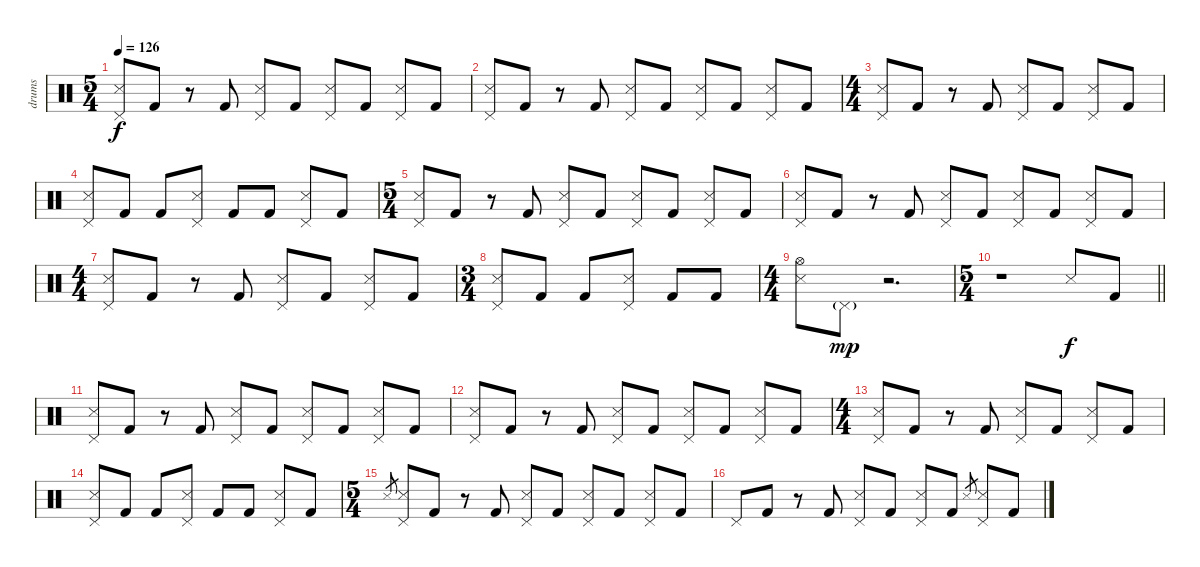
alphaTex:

\track ("drums" "drums") {instrument percussion}
\staff {score}
\articulation defaults
\ts (5 4)
\tempo 126
\clef neutral
\ks c
("Pedal Hi-Hat (hit)" "Snare (side stick) 3").8{dy f} "Kick (hit) 2".8 r.8 "Kick (hit) 2".8 ("Pedal Hi-Hat (hit)" "Snare (side stick) 3").8 "Kick (hit) 2".8 ("Pedal Hi-Hat (hit)" "Snare (side stick) 3").8 "Kick (hit) 2".8 ("Pedal Hi-Hat (hit)" "Snare (side stick) 3").8 "Kick (hit) 2".8 |
("Pedal Hi-Hat (hit)" "Snare (side stick) 3").8 "Kick (hit) 2".8 r.8 "Kick (hit) 2".8 ("Pedal Hi-Hat (hit)" "Snare (side stick) 3").8 "Kick (hit) 2".8 ("Pedal Hi-Hat (hit)" "Snare (side stick) 3").8 "Kick (hit) 2".8 ("Pedal Hi-Hat (hit)" "Snare (side stick) 3").8 "Kick (hit) 2".8 |
\ts (4 4)
("Pedal Hi-Hat (hit)" "Snare (side stick) 3").8 "Kick (hit) 2".8 r.8 "Kick (hit) 2".8 ("Pedal Hi-Hat (hit)" "Snare (side stick) 3").8 "Kick (hit) 2".8 ("Pedal Hi-Hat (hit)" "Snare (side stick) 3").8 "Kick (hit) 2".8 |
("Pedal Hi-Hat (hit)" "Snare (side stick) 3").8 "Kick (hit) 2".8 "Kick (hit) 2".8 ("Pedal Hi-Hat (hit)" "Snare (side stick) 3").8 "Kick (hit) 2".8 "Kick (hit) 2".8 ("Pedal Hi-Hat (hit)" "Snare (side stick) 3").8 "Kick (hit) 2".8 |
\ts (5 4)
("Pedal Hi-Hat (hit)" "Snare (side stick) 3").8 "Kick (hit) 2".8 r.8 "Kick (hit) 2".8 ("Pedal Hi-Hat (hit)" "Snare (side stick) 3").8 "Kick (hit) 2".8 ("Pedal Hi-Hat (hit)" "Snare (side stick) 3").8 "Kick (hit) 2".8 ("Pedal Hi-Hat (hit)" "Snare (side stick) 3").8 "Kick (hit) 2".8 |
("Pedal Hi-Hat (hit)" "Snare (side stick) 3").8 "Kick (hit) 2".8 r.8 "Kick (hit) 2".8 ("Pedal Hi-Hat (hit)" "Snare (side stick) 3").8 "Kick (hit) 2".8 ("Pedal Hi-Hat (hit)" "Snare (side stick) 3").8 "Kick (hit) 2".8 ("Pedal Hi-Hat (hit)" "Snare (side stick) 3").8 "Kick (hit) 2".8 |
\ts (4 4)
("Pedal Hi-Hat (hit)" "Snare (side stick) 3").8 "Kick (hit) 2".8 r.8 "Kick (hit) 2".8 ("Pedal Hi-Hat (hit)" "Snare (side stick) 3").8 "Kick (hit) 2".8 ("Pedal Hi-Hat (hit)" "Snare (side stick) 3").8 "Kick (hit) 2".8 |
\ts (3 4)
("Pedal Hi-Hat (hit)" "Snare (side stick) 3").8 "Kick (hit) 2".8 "Kick (hit) 2".8 ("Pedal Hi-Hat (hit)" "Snare (side stick) 3").8 "Kick (hit) 2".8 "Kick (hit) 2".8 |
\ts (4 4)
("Hi-Hat (open)" "Snare (side stick) 3").8 "Pedal Hi-Hat (hit)"{g}.8{dy mp} r.2{d} |
\ts (5 4)
\barLineRight lightlight
r.1 "Snare (side stick) 3".8{dy f} "Kick (hit) 2".8 |
("Pedal Hi-Hat (hit)" "Snare (side stick) 3").8 "Kick (hit) 2".8 r.8 "Kick (hit) 2".8 ("Pedal Hi-Hat (hit)" "Snare (side stick) 3").8 "Kick (hit) 2".8 ("Pedal Hi-Hat (hit)" "Snare (side stick) 3").8 "Kick (hit) 2".8 ("Pedal Hi-Hat (hit)" "Snare (side stick) 3").8 "Kick (hit) 2".8 |
("Pedal Hi-Hat (hit)" "Snare (side stick) 3").8 "Kick (hit) 2".8 r.8 "Kick (hit) 2".8 ("Pedal Hi-Hat (hit)" "Snare (side stick) 3").8 "Kick (hit) 2".8 ("Pedal Hi-Hat (hit)" "Snare (side stick) 3").8 "Kick (hit) 2".8 ("Pedal Hi-Hat (hit)" "Snare (side stick) 3").8 "Kick (hit) 2".8 |
\ts (4 4)
("Pedal Hi-Hat (hit)" "Snare (side stick) 3").8 "Kick (hit) 2".8 r.8 "Kick (hit) 2".8 ("Pedal Hi-Hat (hit)" "Snare (side stick) 3").8 "Kick (hit) 2".8 ("Pedal Hi-Hat (hit)" "Snare (side stick) 3").8 "Kick (hit) 2".8 |
("Pedal Hi-Hat (hit)" "Snare (side stick) 3").8 "Kick (hit) 2".8 "Kick (hit) 2".8 ("Pedal Hi-Hat (hit)" "Snare (side stick) 3").8 "Kick (hit) 2".8 "Kick (hit) 2".8 ("Pedal Hi-Hat (hit)" "Snare (side stick) 3").8 "Kick (hit) 2".8 |
\ts (5 4)
"Snare (side stick) 3".8{gr} ("Pedal Hi-Hat (hit)" "Snare (side stick) 3").8 "Kick (hit) 2".8 r.8 "Kick (hit) 2".8 ("Pedal Hi-Hat (hit)" "Snare (side stick) 3").8 "Kick (hit) 2".8 ("Pedal Hi-Hat (hit)" "Snare (side stick) 3").8 "Kick (hit) 2".8 ("Pedal Hi-Hat (hit)" "Snare (side stick) 3").8 "Kick (hit) 2".8 |
"Pedal Hi-Hat (hit)".8 "Kick (hit) 2".8 r.8 "Kick (hit) 2".8 ("Pedal Hi-Hat (hit)" "Snare (side stick) 3").8 "Kick (hit) 2".8 ("Pedal Hi-Hat (hit)" "Snare (side stick) 3").8 "Kick (hit) 2".8 "Snare (side stick) 3".8{gr} ("Pedal Hi-Hat (hit)" "Snare (side stick) 3").8 "Kick (hit) 2".8
